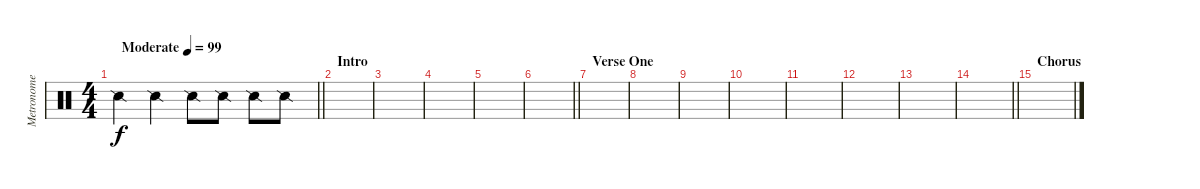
\track ("Metronome" "Metronome") {instrument percussion}
\staff {score}
\articulation defaults
\ts (4 4)
\tempo (99 "Moderate")
\clef neutral
\barLineRight lightlight
\ks c "Snare (side stick) 2".4{dy f} "Snare (side stick) 2".4 "Snare (side stick) 2".8 "Snare (side stick) 2".8 "Snare (side stick) 2".8 "Snare (side stick) 2".8
|
\section ("" "Intro")
|
|
|
|
\barLineRight lightlight
|
\section ("" "Verse One")
|
|
|
|
|
|
|
\barLineRight lightlight
|
\section ("" "Chorus")
